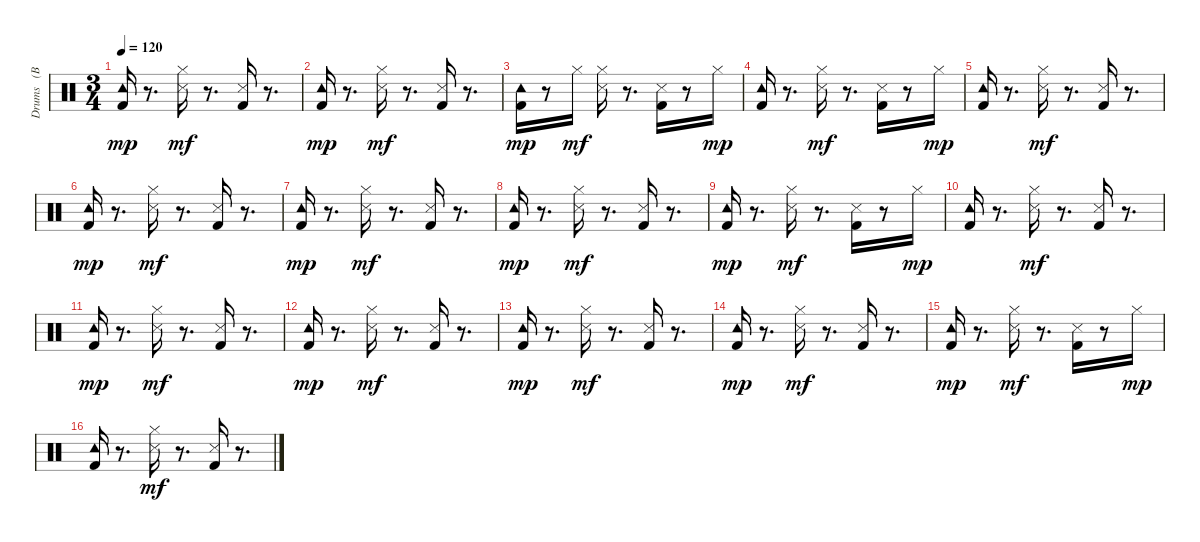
\track ("Drums   (BB)" "Drums   (B") {instrument percussion}
\staff {score}
\articulation defaults
\ts (3 4)
\tempo 120
\clef neutral
\ks c
("Kick (hit) 2" "Tambourine (hit)").16{dy mp} r.8{d} ("Hi-Hat (closed)" "Snare (side stick) 3").16{dy mf} r.8{d} ("Kick (hit) 2" "Snare (side stick) 3").16 r.8{d} |
("Kick (hit) 2" "Tambourine (hit)").16{dy mp} r.8{d} ("Hi-Hat (closed)" "Snare (side stick) 3").16{dy mf} r.8{d} ("Kick (hit) 2" "Snare (side stick) 3").16 r.8{d} |
("Kick (hit) 2" "Tambourine (hit)").16{dy mp} r.8 "Hi-Hat (closed)".16{dy mf} ("Hi-Hat (closed)" "Snare (side stick) 3").16 r.8{d} ("Kick (hit) 2" "Snare (side stick) 3").16 r.8 "Hi-Hat (closed)".16{dy mp} |
("Kick (hit) 2" "Tambourine (hit)").16 r.8{d} ("Hi-Hat (closed)" "Snare (side stick) 3").16{dy mf} r.8{d} ("Kick (hit) 2" "Snare (side stick) 3").16 r.8 "Hi-Hat (closed)".16{dy mp} |
("Kick (hit) 2" "Tambourine (hit)").16 r.8{d} ("Hi-Hat (closed)" "Snare (side stick) 3").16{dy mf} r.8{d} ("Kick (hit) 2" "Snare (side stick) 3").16 r.8{d} |
("Kick (hit) 2" "Tambourine (hit)").16{dy mp} r.8{d} ("Hi-Hat (closed)" "Snare (side stick) 3").16{dy mf} r.8{d} ("Kick (hit) 2" "Snare (side stick) 3").16 r.8{d} |
("Kick (hit) 2" "Tambourine (hit)").16{dy mp} r.8{d} ("Hi-Hat (closed)" "Snare (side stick) 3").16{dy mf} r.8{d} ("Kick (hit) 2" "Snare (side stick) 3").16 r.8{d} |
("Kick (hit) 2" "Tambourine (hit)").16{dy mp} r.8{d} ("Hi-Hat (closed)" "Snare (side stick) 3").16{dy mf} r.8{d} ("Kick (hit) 2" "Snare (side stick) 3").16 r.8{d} |
("Kick (hit) 2" "Tambourine (hit)").16{dy mp} r.8{d} ("Hi-Hat (closed)" "Snare (side stick) 3").16{dy mf} r.8{d} ("Kick (hit) 2" "Snare (side stick) 3").16 r.8 "Hi-Hat (closed)".16{dy mp} |
("Kick (hit) 2" "Tambourine (hit)").16 r.8{d} ("Hi-Hat (closed)" "Snare (side stick) 3").16{dy mf} r.8{d} ("Kick (hit) 2" "Snare (side stick) 3").16 r.8{d} |
("Kick (hit) 2" "Tambourine (hit)").16{dy mp} r.8{d} ("Hi-Hat (closed)" "Snare (side stick) 3").16{dy mf} r.8{d} ("Kick (hit) 2" "Snare (side stick) 3").16 r.8{d} |
("Kick (hit) 2" "Tambourine (hit)").16{dy mp} r.8{d} ("Hi-Hat (closed)" "Snare (side stick) 3").16{dy mf} r.8{d} ("Kick (hit) 2" "Snare (side stick) 3").16 r.8{d} |
("Kick (hit) 2" "Tambourine (hit)").16{dy mp} r.8{d} ("Hi-Hat (closed)" "Snare (side stick) 3").16{dy mf} r.8{d} ("Kick (hit) 2" "Snare (side stick) 3").16 r.8{d} |
("Kick (hit) 2" "Tambourine (hit)").16{dy mp} r.8{d} ("Hi-Hat (closed)" "Snare (side stick) 3").16{dy mf} r.8{d} ("Kick (hit) 2" "Snare (side stick) 3").16 r.8{d} |
("Kick (hit) 2" "Tambourine (hit)").16{dy mp} r.8{d} ("Hi-Hat (closed)" "Snare (side stick) 3").16{dy mf} r.8{d} ("Kick (hit) 2" "Snare (side stick) 3").16 r.8 "Hi-Hat (closed)".16{dy mp} |
("Kick (hit) 2" "Tambourine (hit)").16 r.8{d} ("Hi-Hat (closed)" "Snare (side stick) 3").16{dy mf} r.8{d} ("Kick (hit) 2" "Snare (side stick) 3").16 r.8{d}
